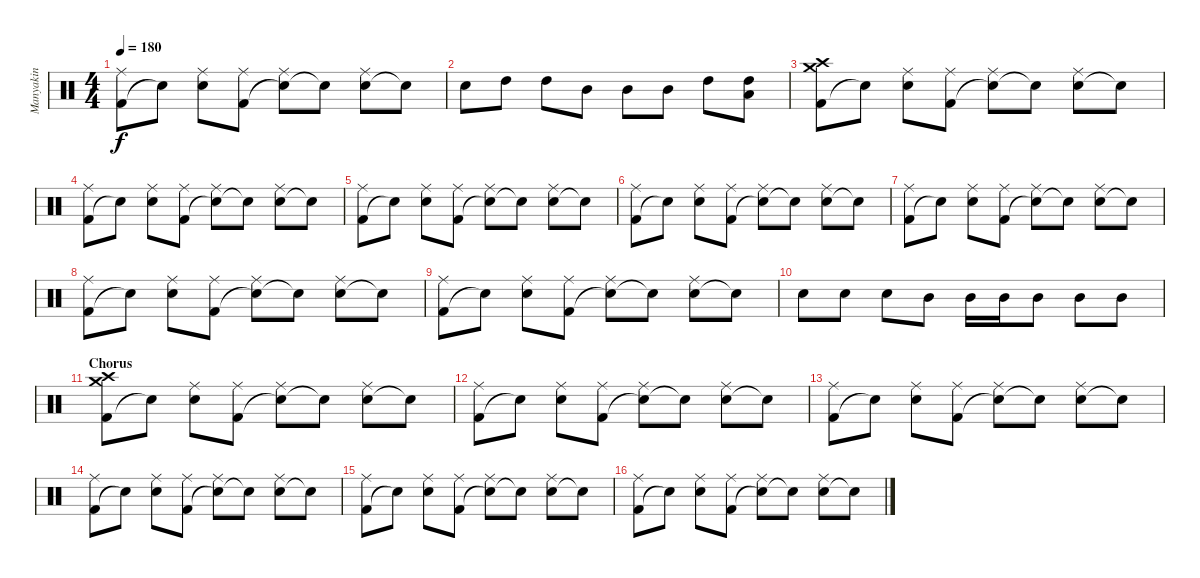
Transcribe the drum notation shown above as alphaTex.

\track ("Manyakin" "Manyakin") {instrument percussion}
\staff {score}
\articulation defaults
\ts (4 4)
\tempo 180
\clef neutral
\ks c
("Kick (hit) 2" "Ride (middle)").8{dy f} "Snare (hit)"{t}.8 ("Snare (hit) 2" "Ride (middle)").8 ("Kick (hit) 2" "Ride (middle)").8 ("Snare (hit)"{t} "Ride (middle)").8 "Snare (hit)"{t}.8 ("Snare (hit) 2" "Ride (middle)").8 "Snare (hit) 2"{t}.8 |
"Electric Snare (hit)".8 "High Tom (hit)".8 "High Tom (hit)".8 "Mid Tom (hit)".8 "Mid Tom (hit)".8 "Mid Tom (hit)".8 "High Tom (hit)".8 ("High Tom (hit)" "Low Tom (hit)").8 |
("Kick (hit) 2" "Crash high (hit)" "Crash medium (hit)").8 "Snare (hit)"{t}.8 ("Snare (hit) 2" "Ride (middle)").8 ("Kick (hit) 2" "Ride (middle)").8 ("Snare (hit)"{t} "Ride (middle)").8 "Snare (hit)"{t}.8 ("Snare (hit) 2" "Ride (middle)").8 "Snare (hit) 2"{t}.8 |
("Kick (hit) 2" "Ride (middle)").8 "Snare (hit)"{t}.8 ("Snare (hit) 2" "Ride (middle)").8 ("Kick (hit) 2" "Ride (middle)").8 ("Snare (hit)"{t} "Ride (middle)").8 "Snare (hit)"{t}.8 ("Snare (hit) 2" "Ride (middle)").8 "Snare (hit) 2"{t}.8 |
("Kick (hit) 2" "Ride (middle)").8 "Snare (hit)"{t}.8 ("Snare (hit) 2" "Ride (middle)").8 ("Kick (hit) 2" "Ride (middle)").8 ("Snare (hit)"{t} "Ride (middle)").8 "Snare (hit)"{t}.8 ("Snare (hit) 2" "Ride (middle)").8 "Snare (hit) 2"{t}.8 |
("Kick (hit) 2" "Ride (middle)").8 "Snare (hit)"{t}.8 ("Snare (hit) 2" "Ride (middle)").8 ("Kick (hit) 2" "Ride (middle)").8 ("Snare (hit)"{t} "Ride (middle)").8 "Snare (hit)"{t}.8 ("Snare (hit) 2" "Ride (middle)").8 "Snare (hit) 2"{t}.8 |
("Kick (hit) 2" "Ride (middle)").8 "Snare (hit)"{t}.8 ("Snare (hit) 2" "Ride (middle)").8 ("Kick (hit) 2" "Ride (middle)").8 ("Snare (hit)"{t} "Ride (middle)").8 "Snare (hit)"{t}.8 ("Snare (hit) 2" "Ride (middle)").8 "Snare (hit) 2"{t}.8 |
("Kick (hit) 2" "Ride (middle)").8 "Snare (hit)"{t}.8 ("Snare (hit) 2" "Ride (middle)").8 ("Kick (hit) 2" "Ride (middle)").8 ("Snare (hit)"{t} "Ride (middle)").8 "Snare (hit)"{t}.8 ("Snare (hit) 2" "Ride (middle)").8 "Snare (hit) 2"{t}.8 |
("Kick (hit) 2" "Ride (middle)").8 "Snare (hit)"{t}.8 ("Snare (hit) 2" "Ride (middle)").8 ("Kick (hit) 2" "Ride (middle)").8 ("Snare (hit)"{t} "Ride (middle)").8 "Snare (hit)"{t}.8 ("Snare (hit) 2" "Ride (middle)").8 "Snare (hit) 2"{t}.8 |
"Snare (hit) 2".8 "Snare (hit) 2".8 "Snare (hit) 2".8 "Mid Tom (hit)".8 "Mid Tom (hit)".16 "Mid Tom (hit)".16 "Mid Tom (hit)".8 "Mid Tom (hit)".8 "Mid Tom (hit)".8 |
\section ("" "Chorus")
("Kick (hit) 2" "Crash high (hit)" "Crash medium (hit)").8 "Snare (hit)"{t}.8 ("Snare (hit) 2" "Ride (middle)").8 ("Kick (hit) 2" "Ride (middle)").8 ("Snare (hit)"{t} "Ride (middle)").8 "Snare (hit)"{t}.8 ("Snare (hit) 2" "Ride (middle)").8 "Snare (hit) 2"{t}.8 |
("Kick (hit) 2" "Ride (middle)").8 "Snare (hit)"{t}.8 ("Snare (hit) 2" "Ride (middle)").8 ("Kick (hit) 2" "Ride (middle)").8 ("Snare (hit)"{t} "Ride (middle)").8 "Snare (hit)"{t}.8 ("Snare (hit) 2" "Ride (middle)").8 "Snare (hit) 2"{t}.8 |
("Kick (hit) 2" "Ride (middle)").8 "Snare (hit)"{t}.8 ("Snare (hit) 2" "Ride (middle)").8 ("Kick (hit) 2" "Ride (middle)").8 ("Snare (hit)"{t} "Ride (middle)").8 "Snare (hit)"{t}.8 ("Snare (hit) 2" "Ride (middle)").8 "Snare (hit) 2"{t}.8 |
("Kick (hit) 2" "Ride (middle)").8 "Snare (hit)"{t}.8 ("Snare (hit) 2" "Ride (middle)").8 ("Kick (hit) 2" "Ride (middle)").8 ("Snare (hit)"{t} "Ride (middle)").8 "Snare (hit)"{t}.8 ("Snare (hit) 2" "Ride (middle)").8 "Snare (hit) 2"{t}.8 |
("Kick (hit) 2" "Ride (middle)").8 "Snare (hit)"{t}.8 ("Snare (hit) 2" "Ride (middle)").8 ("Kick (hit) 2" "Ride (middle)").8 ("Snare (hit)"{t} "Ride (middle)").8 "Snare (hit)"{t}.8 ("Snare (hit) 2" "Ride (middle)").8 "Snare (hit) 2"{t}.8 |
("Kick (hit) 2" "Ride (middle)").8 "Snare (hit)"{t}.8 ("Snare (hit) 2" "Ride (middle)").8 ("Kick (hit) 2" "Ride (middle)").8 ("Snare (hit)"{t} "Ride (middle)").8 "Snare (hit)"{t}.8 ("Snare (hit) 2" "Ride (middle)").8 "Snare (hit) 2"{t}.8
